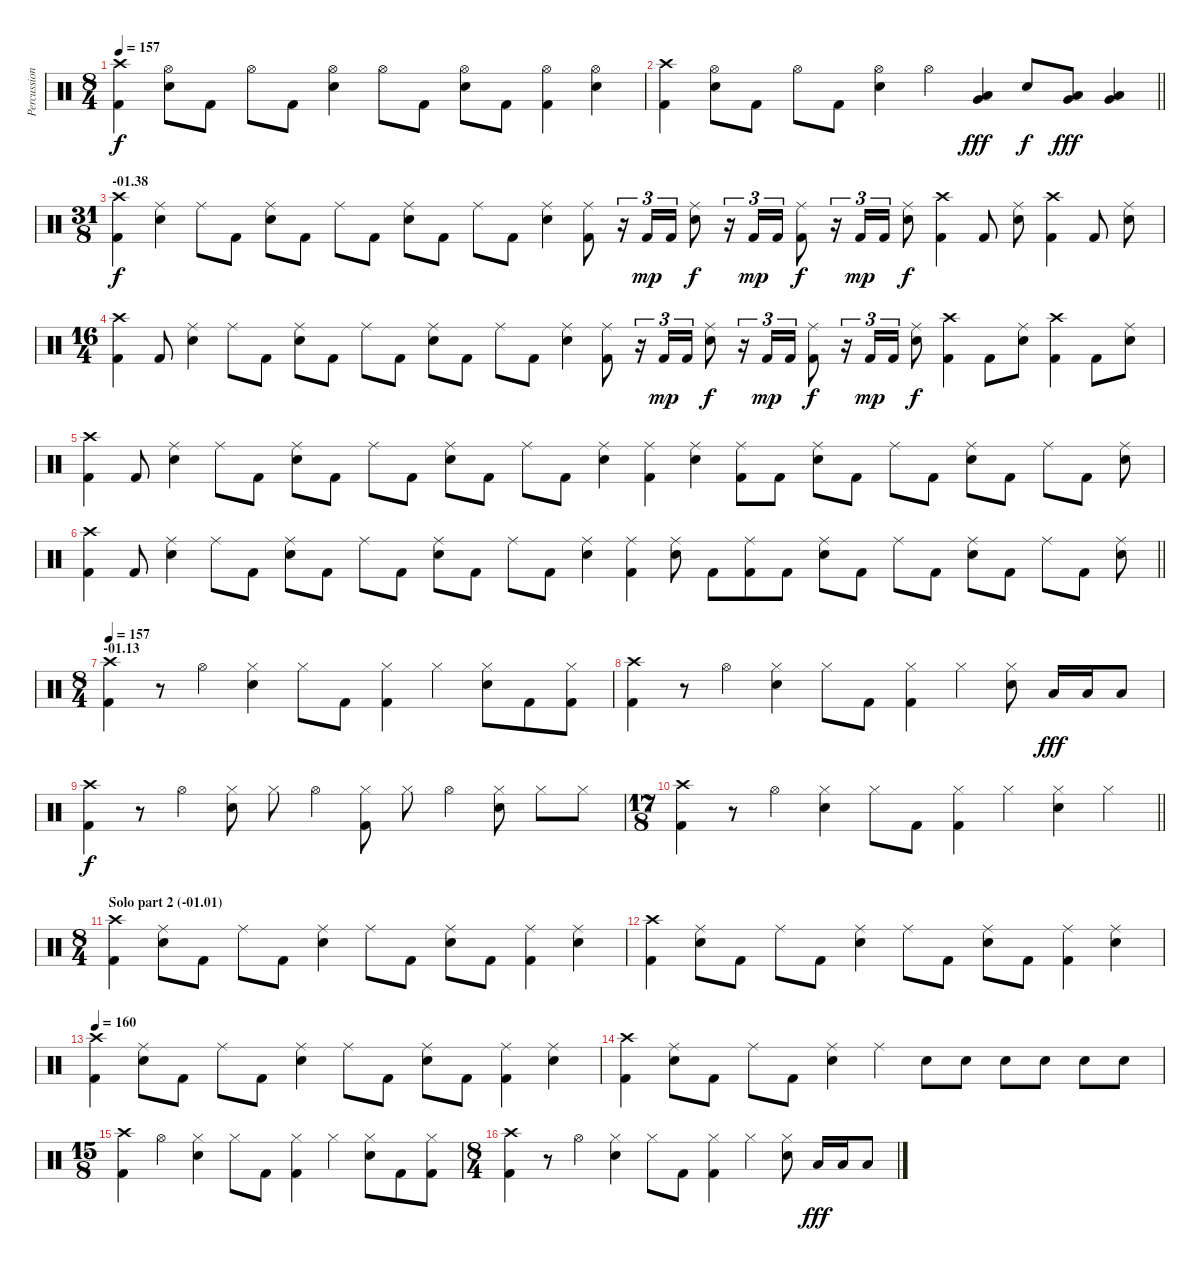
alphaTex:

\track ("Percussion" "Percussion") {instrument percussion}
\staff {score}
\articulation defaults
\ts (8 4)
\tempo 157
\clef neutral
\ks c
("Crash high (hit)" "Kick (hit) 2").4{dy f} ("Hi-Hat (open)" "Electric Snare (hit)").8{beam merge} "Kick (hit) 2".8{beam split} "Hi-Hat (open)".8{beam merge} "Kick (hit) 2".8 ("Hi-Hat (open)" "Electric Snare (hit)").4 "Hi-Hat (open)".8{beam merge} "Kick (hit) 2".8{beam split} ("Hi-Hat (open)" "Electric Snare (hit)").8{beam merge} "Kick (hit) 2".8 ("Hi-Hat (open)" "Kick (hit) 2").4 ("Hi-Hat (open)" "Electric Snare (hit)").4 |
\barLineRight lightlight
("Crash high (hit)" "Kick (hit) 2").4 ("Hi-Hat (open)" "Electric Snare (hit)").8{beam merge} "Kick (hit) 2".8{beam split} "Hi-Hat (open)".8{beam merge} "Kick (hit) 2".8 ("Hi-Hat (open)" "Electric Snare (hit)").4 "Hi-Hat (open)".4 ("Low Tom (hit)" "Very Low Tom (hit)").4{dy fff} "Electric Snare (hit)".8{dy f} ("Low Tom (hit)" "Very Low Tom (hit)").8{dy fff} ("Low Tom (hit)" "Very Low Tom (hit)").4 |
\ts (31 8)
\section ("" "-01.38")
("Crash high (hit)" "Kick (hit) 2").4{dy f} ("Ride (middle)" "Electric Snare (hit)").4 "Ride (middle)".8{beam merge} "Kick (hit) 2".8{beam split} ("Ride (middle)" "Electric Snare (hit)").8{beam merge} "Kick (hit) 2".8{beam split} "Ride (middle)".8{beam merge} "Kick (hit) 2".8{beam split} ("Ride (middle)" "Electric Snare (hit)").8{beam merge} "Kick (hit) 2".8{beam split} "Ride (middle)".8{beam merge} "Kick (hit) 2".8 ("Ride (middle)" "Electric Snare (hit)").4 ("Ride (middle)" "Kick (hit) 2").8 r.16{tu (3 2)} "Kick (hit) 2".16{tu (3 2) dy mp} "Kick (hit) 2".16{tu (3 2)} ("Ride (middle)" "Electric Snare (hit)").8{dy f} r.16{tu (3 2)} "Kick (hit) 2".16{tu (3 2) dy mp} "Kick (hit) 2".16{tu (3 2)} ("Ride (middle)" "Kick (hit) 2").8{dy f} r.16{tu (3 2)} "Kick (hit) 2".16{tu (3 2) dy mp} "Kick (hit) 2".16{tu (3 2)} ("Ride (middle)" "Electric Snare (hit)").8{dy f} ("Crash high (hit)" "Kick (hit) 2").4 "Kick (hit) 2".8 ("Ride (middle)" "Electric Snare (hit)").8 ("Crash high (hit)" "Kick (hit) 2").4 "Kick (hit) 2".8 ("Ride (middle)" "Electric Snare (hit)").8 |
\ts (16 4)
("Crash high (hit)" "Kick (hit) 2").4 "Kick (hit) 2".8 ("Ride (middle)" "Electric Snare (hit)").4 "Ride (middle)".8{beam merge} "Kick (hit) 2".8{beam split} ("Ride (middle)" "Electric Snare (hit)").8{beam merge} "Kick (hit) 2".8{beam split} "Ride (middle)".8{beam merge} "Kick (hit) 2".8{beam split} ("Ride (middle)" "Electric Snare (hit)").8{beam merge} "Kick (hit) 2".8{beam split} "Ride (middle)".8{beam merge} "Kick (hit) 2".8 ("Ride (middle)" "Electric Snare (hit)").4 ("Ride (middle)" "Kick (hit) 2").8 r.16{tu (3 2)} "Kick (hit) 2".16{tu (3 2) dy mp} "Kick (hit) 2".16{tu (3 2)} ("Ride (middle)" "Electric Snare (hit)").8{dy f} r.16{tu (3 2)} "Kick (hit) 2".16{tu (3 2) dy mp} "Kick (hit) 2".16{tu (3 2)} ("Ride (middle)" "Kick (hit) 2").8{dy f} r.16{tu (3 2)} "Kick (hit) 2".16{tu (3 2) dy mp} "Kick (hit) 2".16{tu (3 2)} ("Ride (middle)" "Electric Snare (hit)").8{dy f} ("Crash high (hit)" "Kick (hit) 2").4 "Kick (hit) 2".8 ("Ride (middle)" "Electric Snare (hit)").8 ("Crash high (hit)" "Kick (hit) 2").4 "Kick (hit) 2".8 ("Ride (middle)" "Electric Snare (hit)").8 |
("Crash high (hit)" "Kick (hit) 2").4 "Kick (hit) 2".8 ("Ride (middle)" "Electric Snare (hit)").4 "Ride (middle)".8{beam merge} "Kick (hit) 2".8{beam split} ("Ride (middle)" "Electric Snare (hit)").8{beam merge} "Kick (hit) 2".8{beam split} "Ride (middle)".8{beam merge} "Kick (hit) 2".8{beam split} ("Ride (middle)" "Electric Snare (hit)").8{beam merge} "Kick (hit) 2".8{beam split} "Ride (middle)".8{beam merge} "Kick (hit) 2".8 ("Ride (middle)" "Electric Snare (hit)").4 ("Ride (middle)" "Kick (hit) 2").4 ("Ride (middle)" "Electric Snare (hit)").4 ("Ride (middle)" "Kick (hit) 2").8{beam merge} "Kick (hit) 2".8{beam split} ("Ride (middle)" "Electric Snare (hit)").8{beam merge} "Kick (hit) 2".8{beam split} "Ride (middle)".8{beam merge} "Kick (hit) 2".8{beam split} ("Ride (middle)" "Electric Snare (hit)").8{beam merge} "Kick (hit) 2".8{beam split} "Ride (middle)".8{beam merge} "Kick (hit) 2".8{beam split} ("Ride (middle)" "Electric Snare (hit)").8 |
\barLineRight lightlight
("Crash high (hit)" "Kick (hit) 2").4 "Kick (hit) 2".8 ("Ride (middle)" "Electric Snare (hit)").4 "Ride (middle)".8{beam merge} "Kick (hit) 2".8{beam split} ("Ride (middle)" "Electric Snare (hit)").8{beam merge} "Kick (hit) 2".8{beam split} "Ride (middle)".8{beam merge} "Kick (hit) 2".8{beam split} ("Ride (middle)" "Electric Snare (hit)").8{beam merge} "Kick (hit) 2".8{beam split} "Ride (middle)".8{beam merge} "Kick (hit) 2".8 ("Ride (middle)" "Electric Snare (hit)").4 ("Ride (middle)" "Kick (hit) 2").4 ("Ride (middle)" "Electric Snare (hit)").8 "Kick (hit) 2".8 ("Ride (middle)" "Kick (hit) 2").8{beam merge} "Kick (hit) 2".8{beam split} ("Ride (middle)" "Electric Snare (hit)").8{beam merge} "Kick (hit) 2".8{beam split} "Ride (middle)".8{beam merge} "Kick (hit) 2".8{beam split} ("Ride (middle)" "Electric Snare (hit)").8{beam merge} "Kick (hit) 2".8{beam split} "Ride (middle)".8{beam merge} "Kick (hit) 2".8{beam split} ("Ride (middle)" "Electric Snare (hit)").8 |
\ts (8 4)
\section ("" "-01.13")
\tempo 157
("Crash high (hit)" "Kick (hit) 2").4 r.8 "Hi-Hat (open)".4 ("Hi-Hat (closed)" "Electric Snare (hit)").4 "Hi-Hat (closed)".8{beam merge} "Kick (hit) 2".8 ("Hi-Hat (closed)" "Kick (hit) 2").4 "Hi-Hat (closed)".4 ("Hi-Hat (closed)" "Electric Snare (hit)").8{beam merge} "Kick (hit) 2".8 ("Hi-Hat (closed)" "Kick (hit) 2").8 |
("Crash high (hit)" "Kick (hit) 2").4 r.8 "Hi-Hat (open)".4 ("Hi-Hat (closed)" "Electric Snare (hit)").4 "Hi-Hat (closed)".8{beam merge} "Kick (hit) 2".8 ("Hi-Hat (closed)" "Kick (hit) 2").4 "Hi-Hat (closed)".4 ("Hi-Hat (closed)" "Electric Snare (hit)").8 "Low Tom (hit)".16{dy fff} "Low Tom (hit)".16 "Low Tom (hit)".8 |
("Crash high (hit)" "Kick (hit) 2").4{dy f} r.8 "Hi-Hat (open)".4 ("Hi-Hat (closed)" "Electric Snare (hit)").8 "Hi-Hat (closed)".8 "Hi-Hat (open)".4 ("Hi-Hat (closed)" "Kick (hit) 2").8 "Hi-Hat (closed)".8 "Hi-Hat (open)".4 ("Hi-Hat (closed)" "Electric Snare (hit)").8 "Hi-Hat (closed)".8 "Hi-Hat (closed)".8 |
\ts (17 8)
\barLineRight lightlight
("Crash high (hit)" "Kick (hit) 2").4 r.8 "Hi-Hat (open)".4 ("Hi-Hat (closed)" "Electric Snare (hit)").4 "Hi-Hat (closed)".8{beam merge} "Kick (hit) 2".8 ("Hi-Hat (closed)" "Kick (hit) 2").4 "Hi-Hat (closed)".4 ("Hi-Hat (closed)" "Electric Snare (hit)").4 "Hi-Hat (closed)".4 |
\ts (8 4)
\section ("" "Solo part 2 (-01.01)")
("Crash high (hit)" "Kick (hit) 2").4 ("Ride (middle)" "Electric Snare (hit)").8 "Kick (hit) 2".8 "Ride (middle)".8 "Kick (hit) 2".8 ("Ride (middle)" "Electric Snare (hit)").4 "Ride (middle)".8 "Kick (hit) 2".8 ("Ride (middle)" "Electric Snare (hit)").8 "Kick (hit) 2".8 ("Ride (middle)" "Kick (hit) 2").4 ("Ride (middle)" "Electric Snare (hit)").4 |
("Crash high (hit)" "Kick (hit) 2").4 ("Ride (middle)" "Electric Snare (hit)").8 "Kick (hit) 2".8 "Ride (middle)".8 "Kick (hit) 2".8 ("Ride (middle)" "Electric Snare (hit)").4 "Ride (middle)".8 "Kick (hit) 2".8 ("Ride (middle)" "Electric Snare (hit)").8 "Kick (hit) 2".8 ("Ride (middle)" "Kick (hit) 2").4 ("Ride (middle)" "Electric Snare (hit)").4 |
\tempo 160
("Crash high (hit)" "Kick (hit) 2").4 ("Ride (middle)" "Electric Snare (hit)").8 "Kick (hit) 2".8 "Ride (middle)".8 "Kick (hit) 2".8 ("Ride (middle)" "Electric Snare (hit)").4 "Ride (middle)".8 "Kick (hit) 2".8 ("Ride (middle)" "Electric Snare (hit)").8 "Kick (hit) 2".8 ("Ride (middle)" "Kick (hit) 2").4 ("Ride (middle)" "Electric Snare (hit)").4 |
("Crash high (hit)" "Kick (hit) 2").4 ("Ride (middle)" "Electric Snare (hit)").8 "Kick (hit) 2".8 "Ride (middle)".8 "Kick (hit) 2".8 ("Ride (middle)" "Electric Snare (hit)").4 "Ride (middle)".4 "Electric Snare (hit)".8 "Electric Snare (hit)".8 "Electric Snare (hit)".8 "Electric Snare (hit)".8 "Electric Snare (hit)".8 "Electric Snare (hit)".8 |
\ts (15 8)
("Crash high (hit)" "Kick (hit) 2").4 "Hi-Hat (open)".4 ("Hi-Hat (closed)" "Electric Snare (hit)").4 "Hi-Hat (closed)".8{beam merge} "Kick (hit) 2".8 ("Hi-Hat (closed)" "Kick (hit) 2").4 "Hi-Hat (closed)".4 ("Hi-Hat (closed)" "Electric Snare (hit)").8{beam merge} "Kick (hit) 2".8{beam merge} ("Hi-Hat (closed)" "Kick (hit) 2").8 |
\ts (8 4)
("Crash high (hit)" "Kick (hit) 2").4 r.8 "Hi-Hat (open)".4 ("Hi-Hat (closed)" "Electric Snare (hit)").4 "Hi-Hat (closed)".8{beam merge} "Kick (hit) 2".8 ("Hi-Hat (closed)" "Kick (hit) 2").4 "Hi-Hat (closed)".4 ("Hi-Hat (closed)" "Electric Snare (hit)").8 "Low Tom (hit)".16{dy fff} "Low Tom (hit)".16 "Low Tom (hit)".8
